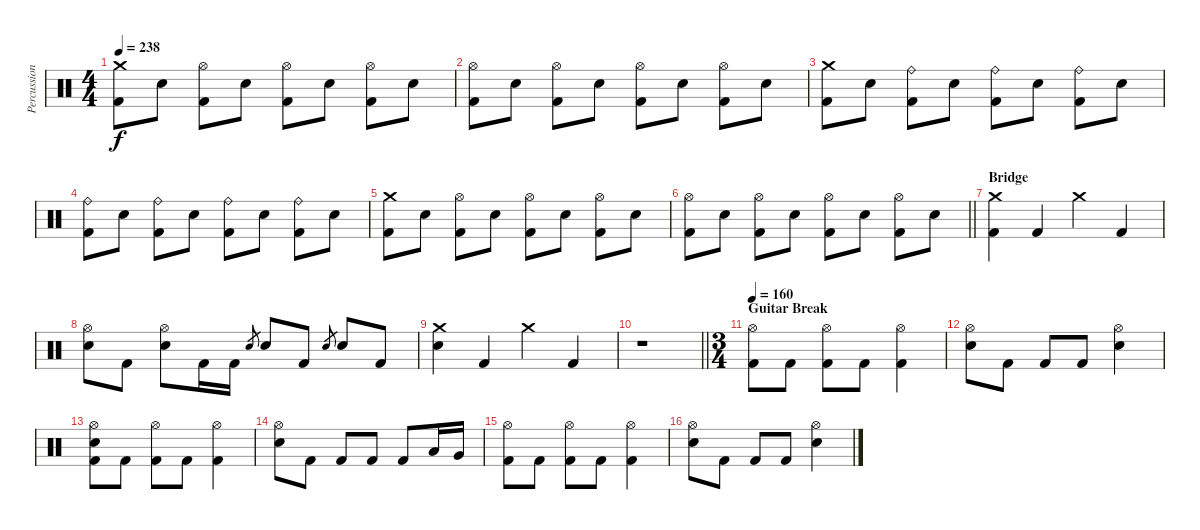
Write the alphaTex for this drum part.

\track ("Percussion" "Percussion") {instrument percussion}
\staff {score}
\articulation defaults
\ts (4 4)
\tempo 238
\clef neutral
\ks c
("Crash medium (hit)" "Kick (hit) 2").8{dy f} "Electric Snare (hit)".8 ("Hi-Hat (open)" "Kick (hit) 2").8 "Electric Snare (hit)".8 ("Hi-Hat (open)" "Kick (hit) 2").8 "Electric Snare (hit)".8 ("Hi-Hat (open)" "Kick (hit) 2").8 "Electric Snare (hit)".8 |
("Hi-Hat (open)" "Kick (hit) 2").8 "Electric Snare (hit)".8 ("Hi-Hat (open)" "Kick (hit) 2").8 "Electric Snare (hit)".8 ("Hi-Hat (open)" "Kick (hit) 2").8 "Electric Snare (hit)".8 ("Hi-Hat (open)" "Kick (hit) 2").8 "Electric Snare (hit)".8 |
("Crash medium (hit)" "Kick (hit) 2").8 "Electric Snare (hit)".8 ("Ride (bell)" "Kick (hit) 2").8 "Electric Snare (hit)".8 ("Ride (bell)" "Kick (hit) 2").8 "Electric Snare (hit)".8 ("Ride (bell)" "Kick (hit) 2").8 "Electric Snare (hit)".8 |
("Ride (bell)" "Kick (hit) 2").8 "Electric Snare (hit)".8 ("Ride (bell)" "Kick (hit) 2").8 "Electric Snare (hit)".8 ("Ride (bell)" "Kick (hit) 2").8 "Electric Snare (hit)".8 ("Ride (bell)" "Kick (hit) 2").8 "Electric Snare (hit)".8 |
("Crash medium (hit)" "Kick (hit) 2").8 "Electric Snare (hit)".8 ("Hi-Hat (open)" "Kick (hit) 2").8 "Electric Snare (hit)".8 ("Hi-Hat (open)" "Kick (hit) 2").8 "Electric Snare (hit)".8 ("Hi-Hat (open)" "Kick (hit) 2").8 "Electric Snare (hit)".8 |
\barLineRight lightlight
("Hi-Hat (open)" "Kick (hit) 2").8 "Electric Snare (hit)".8 ("Hi-Hat (open)" "Kick (hit) 2").8 "Electric Snare (hit)".8 ("Hi-Hat (open)" "Kick (hit) 2").8 "Electric Snare (hit)".8 ("Hi-Hat (open)" "Kick (hit) 2").8 "Electric Snare (hit)".8 |
\section ("" "Bridge")
("Crash medium (hit)" "Kick (hit) 2").4 "Kick (hit) 2".4 "Crash medium (hit)".4 "Kick (hit) 2".4 |
("Hi-Hat (open)" "Electric Snare (hit)").8 "Kick (hit) 2".8 ("Hi-Hat (open)" "Electric Snare (hit)").8 "Kick (hit) 2".16 "Kick (hit) 2".16 "Electric Snare (hit)".8{gr} "Electric Snare (hit)".8 "Kick (hit) 2".8 "Electric Snare (hit)".8{gr} "Electric Snare (hit)".8 "Kick (hit) 2".8 |
("Crash medium (hit)" "Electric Snare (hit)").4 "Kick (hit) 2".4 "Crash medium (hit)".4 "Kick (hit) 2".4 |
\barLineRight lightlight
r.1 |
\ts (3 4)
\section ("" "Guitar Break")
\tempo 160
("Hi-Hat (open)" "Kick (hit) 2").8 "Kick (hit) 2".8 ("Hi-Hat (open)" "Kick (hit) 2").8 "Kick (hit) 2".8 ("Hi-Hat (open)" "Kick (hit) 2").4 |
("Hi-Hat (open)" "Electric Snare (hit)").8 "Kick (hit) 2".8 "Kick (hit) 2".8 "Kick (hit) 2".8 ("Hi-Hat (open)" "Electric Snare (hit)").4 |
("Hi-Hat (open)" "Electric Snare (hit)" "Kick (hit) 2").8 "Kick (hit) 2".8 ("Hi-Hat (open)" "Kick (hit) 2").8 "Kick (hit) 2".8 ("Hi-Hat (open)" "Kick (hit) 2").4 |
("Hi-Hat (open)" "Electric Snare (hit)").8 "Kick (hit) 2".8 "Kick (hit) 2".8 "Kick (hit) 2".8 "Kick (hit) 2".8 "Low Tom (hit)".16 "Very Low Tom (hit)".16 |
("Hi-Hat (open)" "Kick (hit) 2").8 "Kick (hit) 2".8 ("Hi-Hat (open)" "Kick (hit) 2").8 "Kick (hit) 2".8 ("Hi-Hat (open)" "Kick (hit) 2").4 |
("Hi-Hat (open)" "Electric Snare (hit)").8 "Kick (hit) 2".8 "Kick (hit) 2".8 "Kick (hit) 2".8 ("Hi-Hat (open)" "Electric Snare (hit)").4
